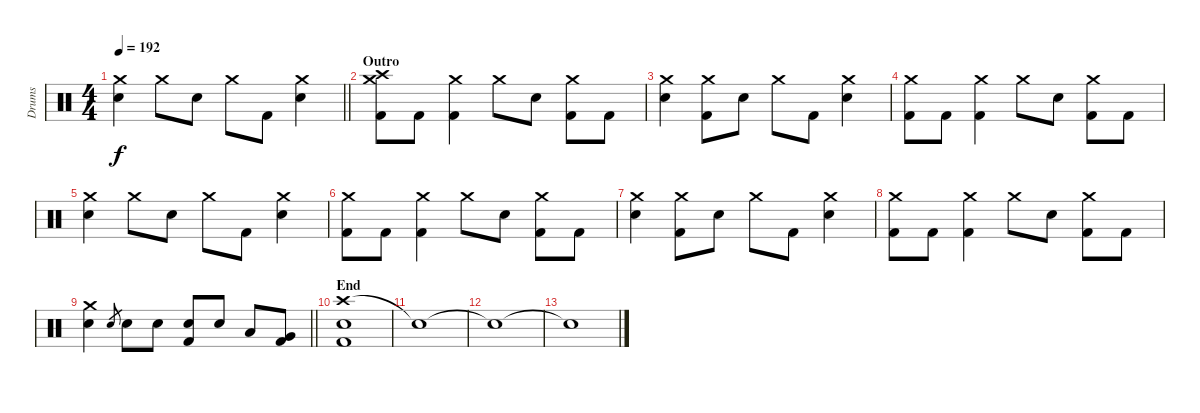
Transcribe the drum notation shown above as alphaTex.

\track ("Drums" "Drums") {instrument percussion}
\staff {score}
\articulation defaults
\ts (4 4)
\tempo 192
\clef neutral
\barLineRight lightlight
\ks c
("Crash medium (hit)" "Electric Snare (hit)").4{dy f} "Crash medium (hit)".8 "Electric Snare (hit)".8 "Crash medium (hit)".8 "Kick (hit) 2".8 ("Crash medium (hit)" "Electric Snare (hit)").4 |
\section ("" "Outro")
("Crash high (hit)" "Crash medium (hit)" "Kick (hit) 2").8 "Kick (hit) 2".8 ("Crash medium (hit)" "Kick (hit) 2").4 "Crash medium (hit)".8 "Electric Snare (hit)".8 ("Crash medium (hit)" "Kick (hit) 2").8 "Kick (hit) 2".8 |
("Crash medium (hit)" "Electric Snare (hit)").4 ("Crash medium (hit)" "Kick (hit) 2").8 "Electric Snare (hit)".8 "Crash medium (hit)".8 "Kick (hit) 2".8 ("Crash medium (hit)" "Electric Snare (hit)").4 |
("Crash medium (hit)" "Kick (hit) 2").8 "Kick (hit) 2".8 ("Crash medium (hit)" "Kick (hit) 2").4 "Crash medium (hit)".8 "Electric Snare (hit)".8 ("Crash medium (hit)" "Kick (hit) 2").8 "Kick (hit) 2".8 |
("Crash medium (hit)" "Electric Snare (hit)").4 "Crash medium (hit)".8 "Electric Snare (hit)".8 "Crash medium (hit)".8 "Kick (hit) 2".8 ("Crash medium (hit)" "Electric Snare (hit)").4 |
("Crash medium (hit)" "Kick (hit) 2").8 "Kick (hit) 2".8 ("Crash medium (hit)" "Kick (hit) 2").4 "Crash medium (hit)".8 "Electric Snare (hit)".8 ("Crash medium (hit)" "Kick (hit) 2").8 "Kick (hit) 2".8 |
("Crash medium (hit)" "Electric Snare (hit)").4 ("Crash medium (hit)" "Kick (hit) 2").8 "Electric Snare (hit)".8 "Crash medium (hit)".8 "Kick (hit) 2".8 ("Crash medium (hit)" "Electric Snare (hit)").4 |
("Crash medium (hit)" "Kick (hit) 2").8 "Kick (hit) 2".8 ("Crash medium (hit)" "Kick (hit) 2").4 "Crash medium (hit)".8 "Electric Snare (hit)".8 ("Crash medium (hit)" "Kick (hit) 2").8 "Kick (hit) 2".8 |
\barLineRight lightlight
("Crash medium (hit)" "Electric Snare (hit)").4 "Electric Snare (hit)".8{gr} "Electric Snare (hit)".8 "Electric Snare (hit)".8 ("Electric Snare (hit)" "Kick (hit) 2").8 "Electric Snare (hit)".8 "Low Tom (hit)".8 ("Very Low Tom (hit)" "Kick (hit) 2").8 |
\section ("" "End")
("Crash high (hit)" "Electric Snare (hit)" "Kick (hit) 2").1 |
"Snare (hit)"{t}.1 |
"Snare (hit)"{t}.1 |
"Snare (hit)"{t}.1
